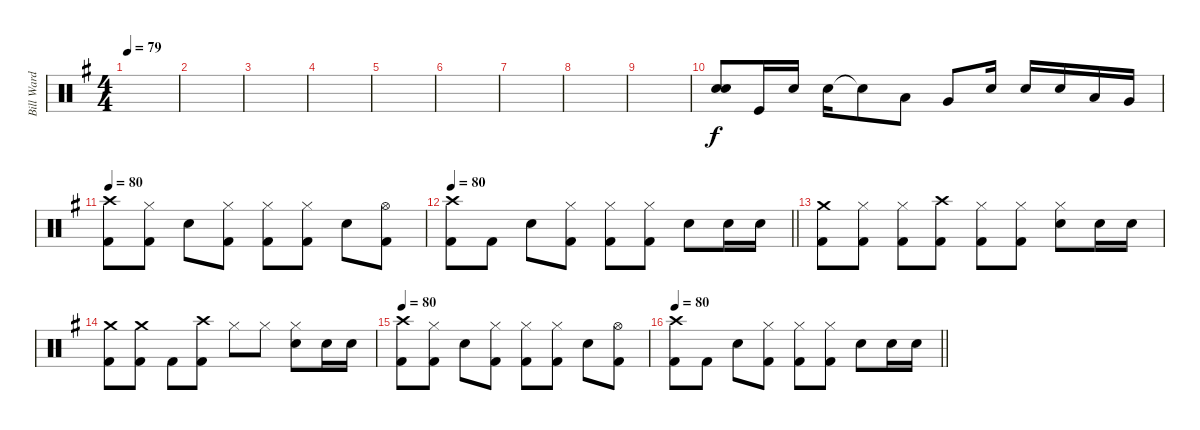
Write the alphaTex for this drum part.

\track ("Bill Ward" "Bill Ward") {instrument percussion}
\staff {score}
\articulation defaults
\ts (4 4)
\tempo 79
\clef neutral
\ks g
|
|
|
|
|
|
|
|
|
("Snare (hit) 2" "Snare (hit) 2").8 "Kick (hit)".16 "Snare (hit) 2".16 "Snare (hit) 2".16 "Snare (hit)"{t}.8 "Low Tom (hit)".8 "Very Low Tom (hit)".8 "Snare (hit) 2".16 "Snare (hit) 2".16 "Snare (hit) 2".16 "Low Tom (hit)".16 "Very Low Tom (hit)".16 |
\tempo 80
("Crash high (hit)" "Kick (hit) 2").8 ("Hi-Hat (closed)" "Kick (hit) 2").8 "Snare (hit) 2".8 ("Hi-Hat (closed)" "Kick (hit) 2").8 ("Hi-Hat (closed)" "Kick (hit) 2").8 ("Hi-Hat (closed)" "Kick (hit) 2").8 "Snare (hit) 2".8 ("Hi-Hat (open)" "Kick (hit) 2").8 |
\tempo 80
\barLineRight lightlight
("Crash high (hit)" "Kick (hit) 2").8 "Kick (hit) 2".8 "Snare (hit) 2".8 ("Hi-Hat (closed)" "Kick (hit) 2").8 ("Hi-Hat (closed)" "Kick (hit) 2").8 ("Hi-Hat (closed)" "Kick (hit) 2").8 "Snare (hit) 2".8 "Snare (hit) 2".16 "Snare (hit) 2".16 |
("Crash medium (hit)" "Kick (hit) 2").8 ("Hi-Hat (closed)" "Kick (hit) 2").8 ("Hi-Hat (closed)" "Kick (hit) 2").8 ("Crash high (hit)" "Kick (hit) 2").8 ("Hi-Hat (closed)" "Kick (hit) 2").8 ("Hi-Hat (closed)" "Kick (hit) 2").8 ("Hi-Hat (closed)" "Snare (hit) 2").8 "Snare (hit) 2".16 "Snare (hit) 2".16 |
("Crash medium (hit)" "Kick (hit) 2").8 ("Crash medium (hit)" "Kick (hit) 2").8 "Kick (hit) 2".8 ("Crash high (hit)" "Kick (hit) 2").8 "Hi-Hat (closed)".8 "Hi-Hat (closed)".8 ("Hi-Hat (closed)" "Snare (hit) 2").8 "Snare (hit) 2".16 "Snare (hit) 2".16 |
\tempo 80
("Crash high (hit)" "Kick (hit) 2").8 ("Hi-Hat (closed)" "Kick (hit) 2").8 "Snare (hit) 2".8 ("Hi-Hat (closed)" "Kick (hit) 2").8 ("Hi-Hat (closed)" "Kick (hit) 2").8 ("Hi-Hat (closed)" "Kick (hit) 2").8 "Snare (hit) 2".8 ("Hi-Hat (open)" "Kick (hit) 2").8 |
\tempo 80
\barLineRight lightlight
("Crash high (hit)" "Kick (hit) 2").8 "Kick (hit) 2".8 "Snare (hit) 2".8 ("Hi-Hat (closed)" "Kick (hit) 2").8 ("Hi-Hat (closed)" "Kick (hit) 2").8 ("Hi-Hat (closed)" "Kick (hit) 2").8 "Snare (hit) 2".8 "Snare (hit) 2".16 "Snare (hit) 2".16
